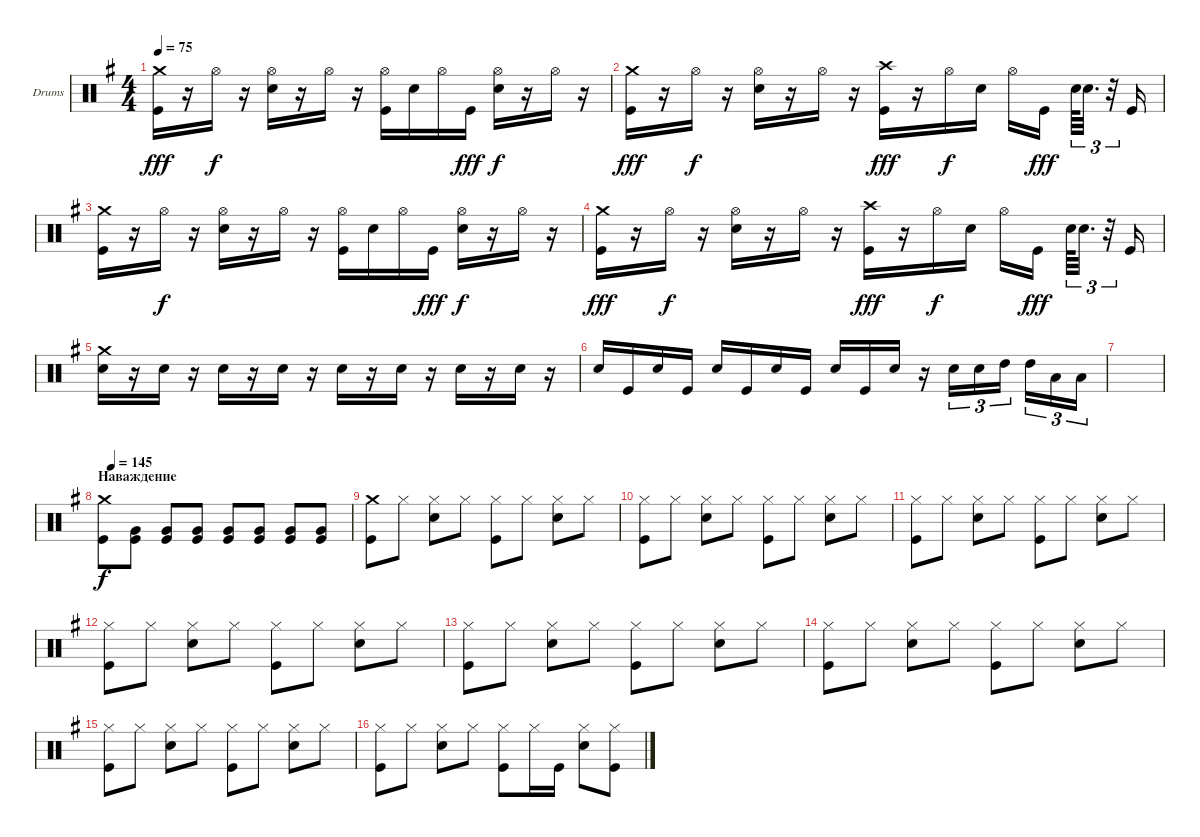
\bracketExtendMode groupsimilarinstruments
\firstSystemTrackNameOrientation horizontal
\otherSystemsTrackNameOrientation horizontal
\track ("Александр Манякин" "Drums") {instrument percussion}
\staff {score}
\articulation defaults
\ts (4 4)
\tempo 75
\clef neutral
\ks eminor
("Crash medium (hit)" "Kick (hit)").16{dy fff} r.16 "Hi-Hat (open)".16{dy f} r.16 ("Hi-Hat (open)" "Snare (hit) 2").16 r.16 "Hi-Hat (open)".16 r.16 ("Hi-Hat (open)" "Kick (hit)").16 "Snare (hit) 2".16 "Hi-Hat (open)".16 "Kick (hit)".16{dy fff} ("Hi-Hat (open)" "Snare (hit) 2").16{dy f} r.16 "Hi-Hat (open)".16 r.16 |
("Crash medium (hit)" "Kick (hit)").16{dy fff} r.16 "Hi-Hat (open)".16{dy f} r.16 ("Hi-Hat (open)" "Snare (hit) 2").16 r.16 "Hi-Hat (open)".16 r.16 ("Crash high (hit)" "Kick (hit)").16{dy fff} r.16 "Hi-Hat (open)".16{dy f} "Snare (hit) 2".16 "Hi-Hat (open)".16 "Kick (hit)".16{dy fff} "Snare (hit) 2".64{tu (3 2)} "Snare (hit) 2".32{d tu (3 2)} r.32{tu (3 2)} "Kick (hit)".16 |
("Crash medium (hit)" "Kick (hit)").16 r.16 "Hi-Hat (open)".16{dy f} r.16 ("Hi-Hat (open)" "Snare (hit) 2").16 r.16 "Hi-Hat (open)".16 r.16 ("Hi-Hat (open)" "Kick (hit)").16 "Snare (hit) 2".16 "Hi-Hat (open)".16 "Kick (hit)".16{dy fff} ("Hi-Hat (open)" "Snare (hit) 2").16{dy f} r.16 "Hi-Hat (open)".16 r.16 |
("Crash medium (hit)" "Kick (hit)").16{dy fff} r.16 "Hi-Hat (open)".16{dy f} r.16 ("Hi-Hat (open)" "Snare (hit) 2").16 r.16 "Hi-Hat (open)".16 r.16 ("Crash high (hit)" "Kick (hit)").16{dy fff} r.16 "Hi-Hat (open)".16{dy f} "Snare (hit) 2".16 "Hi-Hat (open)".16 "Kick (hit)".16{dy fff} "Snare (hit) 2".64{tu (3 2)} "Snare (hit) 2".32{d tu (3 2)} r.32{tu (3 2)} "Kick (hit)".16 |
("Crash medium (hit)" "Snare (hit) 2").16 r.16 "Snare (hit) 2".16 r.16 "Snare (hit) 2".16 r.16 "Snare (hit) 2".16 r.16 "Snare (hit) 2".16 r.16 "Snare (hit) 2".16 r.16 "Snare (hit) 2".16 r.16 "Snare (hit) 2".16 r.16 |
"Snare (hit) 2".16 "Kick (hit)".16 "Snare (hit) 2".16 "Kick (hit)".16 "Snare (hit) 2".16 "Kick (hit)".16 "Snare (hit) 2".16 "Kick (hit)".16 "Snare (hit) 2".16 "Kick (hit)".16 "Snare (hit) 2".16 r.16 "Snare (hit) 2".16{tu (3 2)} "Snare (hit) 2".16{tu (3 2)} "High Tom (hit)".16{tu (3 2)} "High Tom (hit)".16{tu (3 2)} "Low Tom (hit)".16{tu (3 2)} "Low Tom (hit)".16{tu (3 2)} |
|
\section ("" "Наваждение")
\tempo (145 0.03125)
("Kick (hit)" "Crash medium (hit)").8{dy f} ("Kick (hit)" "Very Low Tom (hit)").8 ("Kick (hit)" "Very Low Tom (hit)").8 ("Kick (hit)" "Very Low Tom (hit)").8 ("Kick (hit)" "Very Low Tom (hit)").8 ("Kick (hit)" "Very Low Tom (hit)").8 ("Kick (hit)" "Very Low Tom (hit)").8 ("Kick (hit)" "Very Low Tom (hit)").8 |
("Kick (hit)" "Crash medium (hit)").8 "Hi-Hat (closed)".8 ("Hi-Hat (closed)" "Snare (hit) 2").8 "Hi-Hat (closed)".8 ("Hi-Hat (closed)" "Kick (hit)").8 "Hi-Hat (closed)".8 ("Hi-Hat (closed)" "Snare (hit) 2").8 "Hi-Hat (closed)".8 |
("Kick (hit)" "Hi-Hat (closed)").8 "Hi-Hat (closed)".8 ("Hi-Hat (closed)" "Snare (hit) 2").8 "Hi-Hat (closed)".8 ("Hi-Hat (closed)" "Kick (hit)").8 "Hi-Hat (closed)".8 ("Hi-Hat (closed)" "Snare (hit) 2").8 "Hi-Hat (closed)".8 |
("Kick (hit)" "Hi-Hat (closed)").8 "Hi-Hat (closed)".8 ("Hi-Hat (closed)" "Snare (hit) 2").8 "Hi-Hat (closed)".8 ("Hi-Hat (closed)" "Kick (hit)").8 "Hi-Hat (closed)".8 ("Hi-Hat (closed)" "Snare (hit) 2").8 "Hi-Hat (closed)".8 |
("Kick (hit)" "Hi-Hat (closed)").8 "Hi-Hat (closed)".8 ("Hi-Hat (closed)" "Snare (hit) 2").8 "Hi-Hat (closed)".8 ("Hi-Hat (closed)" "Kick (hit)").8 "Hi-Hat (closed)".8 ("Hi-Hat (closed)" "Snare (hit) 2").8 "Hi-Hat (closed)".8 |
("Kick (hit)" "Hi-Hat (closed)").8 "Hi-Hat (closed)".8 ("Hi-Hat (closed)" "Snare (hit) 2").8 "Hi-Hat (closed)".8 ("Hi-Hat (closed)" "Kick (hit)").8 "Hi-Hat (closed)".8 ("Hi-Hat (closed)" "Snare (hit) 2").8 "Hi-Hat (closed)".8 |
("Kick (hit)" "Hi-Hat (closed)").8 "Hi-Hat (closed)".8 ("Hi-Hat (closed)" "Snare (hit) 2").8 "Hi-Hat (closed)".8 ("Hi-Hat (closed)" "Kick (hit)").8 "Hi-Hat (closed)".8 ("Hi-Hat (closed)" "Snare (hit) 2").8 "Hi-Hat (closed)".8 |
("Kick (hit)" "Hi-Hat (closed)").8 "Hi-Hat (closed)".8 ("Hi-Hat (closed)" "Snare (hit) 2").8 "Hi-Hat (closed)".8 ("Hi-Hat (closed)" "Kick (hit)").8 "Hi-Hat (closed)".8 ("Hi-Hat (closed)" "Snare (hit) 2").8 "Hi-Hat (closed)".8 |
("Kick (hit)" "Hi-Hat (closed)").8 "Hi-Hat (closed)".8 ("Hi-Hat (closed)" "Snare (hit) 2").8 "Hi-Hat (closed)".8 ("Hi-Hat (closed)" "Kick (hit)").8 "Hi-Hat (closed)".16 "Kick (hit)".16 ("Hi-Hat (closed)" "Snare (hit) 2").8 ("Hi-Hat (closed)" "Kick (hit)").8
